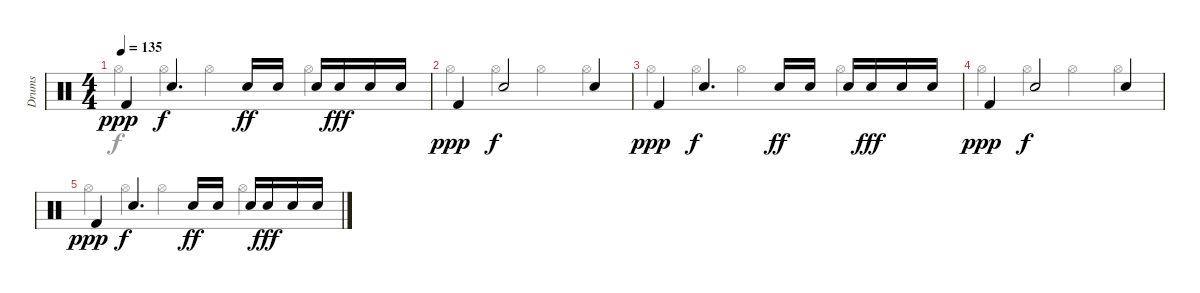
\track ("Drums" "Drums") {instrument percussion}
\staff {score}
\articulation defaults
\voice
\ts (4 4)
\tempo 135
\clef neutral
\ks c "Kick (hit) 2".4{dy ppp} "Snare (hit) 2".4{d dy f} "Snare (hit) 2".16{dy ff} "Snare (hit) 2".16 "Snare (hit) 2".16 "Snare (hit) 2".16{dy fff} "Snare (hit) 2".16 "Snare (hit) 2".16
|
"Kick (hit) 2".4{dy ppp} "Snare (hit) 2".2{dy f} "Snare (hit) 2".4 |
"Kick (hit) 2".4{dy ppp} "Snare (hit) 2".4{d dy f} "Snare (hit) 2".16{dy ff} "Snare (hit) 2".16 "Snare (hit) 2".16 "Snare (hit) 2".16{dy fff} "Snare (hit) 2".16 "Snare (hit) 2".16 |
"Kick (hit) 2".4{dy ppp} "Snare (hit) 2".2{dy f} "Snare (hit) 2".4 |
"Kick (hit) 2".4{dy ppp} "Snare (hit) 2".4{d dy f} "Snare (hit) 2".16{dy ff} "Snare (hit) 2".16 "Snare (hit) 2".16 "Snare (hit) 2".16{dy fff} "Snare (hit) 2".16 "Snare (hit) 2".16
\voice
\clef neutral
\ottava regular
\simile none
\ks c "Hi-Hat (open)".4{dy f} "Hi-Hat (open)".4 "Hi-Hat (open)".4 "Hi-Hat (open)".4
|
"Hi-Hat (open)".4 "Hi-Hat (open)".4 "Hi-Hat (open)".4 "Hi-Hat (open)".4 |
"Hi-Hat (open)".4 "Hi-Hat (open)".4 "Hi-Hat (open)".4 "Hi-Hat (open)".4 |
"Hi-Hat (open)".4 "Hi-Hat (open)".4 "Hi-Hat (open)".4 "Hi-Hat (open)".4 |
"Hi-Hat (open)".4 "Hi-Hat (open)".4 "Hi-Hat (open)".4 "Hi-Hat (open)".4
